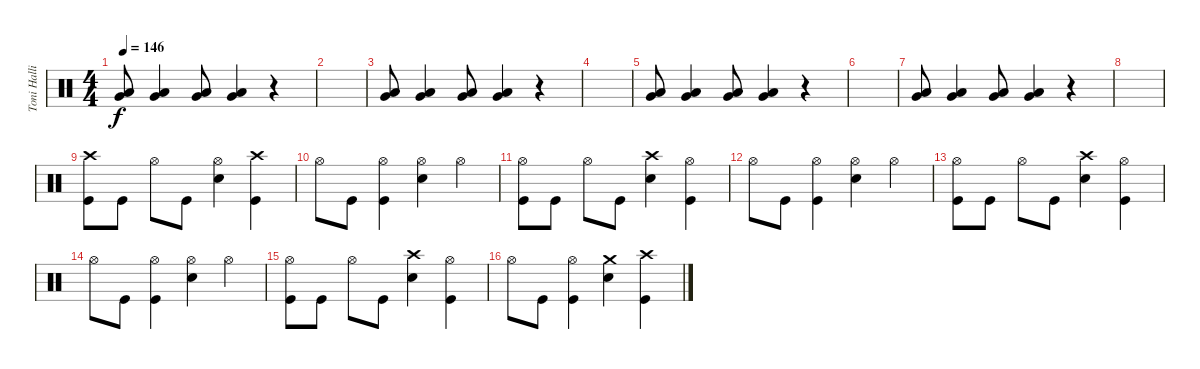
\track ("Toni Hallio" "Toni Halli") {instrument percussion}
\staff {score}
\articulation defaults
\ts (4 4)
\tempo 146
\clef neutral
\ks c
("Low Tom (hit)" "Very Low Tom (hit)").8{dy f} ("Low Tom (hit)" "Very Low Tom (hit)").4 ("Low Tom (hit)" "Very Low Tom (hit)").8 ("Low Tom (hit)" "Very Low Tom (hit)").4 r.4 |
|
("Low Tom (hit)" "Very Low Tom (hit)").8 ("Low Tom (hit)" "Very Low Tom (hit)").4 ("Low Tom (hit)" "Very Low Tom (hit)").8 ("Low Tom (hit)" "Very Low Tom (hit)").4 r.4 |
|
("Low Tom (hit)" "Very Low Tom (hit)").8 ("Low Tom (hit)" "Very Low Tom (hit)").4 ("Low Tom (hit)" "Very Low Tom (hit)").8 ("Low Tom (hit)" "Very Low Tom (hit)").4 r.4 |
|
("Low Tom (hit)" "Very Low Tom (hit)").8 ("Low Tom (hit)" "Very Low Tom (hit)").4 ("Low Tom (hit)" "Very Low Tom (hit)").8 ("Low Tom (hit)" "Very Low Tom (hit)").4 r.4 |
|
("Crash high (hit)" "Kick (hit)").8 "Kick (hit)".8 "Hi-Hat (open)".8 "Kick (hit)".8 ("Hi-Hat (open)" "Snare (hit) 2").4 ("Crash high (hit)" "Kick (hit)").4 |
"Hi-Hat (open)".8 "Kick (hit)".8 ("Hi-Hat (open)" "Kick (hit)").4 ("Hi-Hat (open)" "Snare (hit) 2").4 "Hi-Hat (open)".4 |
("Hi-Hat (open)" "Kick (hit)").8 "Kick (hit)".8 "Hi-Hat (open)".8 "Kick (hit)".8 ("Crash high (hit)" "Snare (hit) 2").4 ("Hi-Hat (open)" "Kick (hit)").4 |
"Hi-Hat (open)".8 "Kick (hit)".8 ("Hi-Hat (open)" "Kick (hit)").4 ("Hi-Hat (open)" "Snare (hit) 2").4 "Hi-Hat (open)".4 |
("Hi-Hat (open)" "Kick (hit)").8 "Kick (hit)".8 "Hi-Hat (open)".8 "Kick (hit)".8 ("Crash high (hit)" "Snare (hit) 2").4 ("Hi-Hat (open)" "Kick (hit)").4 |
"Hi-Hat (open)".8 "Kick (hit)".8 ("Hi-Hat (open)" "Kick (hit)").4 ("Hi-Hat (open)" "Snare (hit) 2").4 "Hi-Hat (open)".4 |
("Hi-Hat (open)" "Kick (hit)").8 "Kick (hit)".8 "Hi-Hat (open)".8 "Kick (hit)".8 ("Crash high (hit)" "Snare (hit) 2").4 ("Hi-Hat (open)" "Kick (hit)").4 |
"Hi-Hat (open)".8 "Kick (hit)".8 ("Hi-Hat (open)" "Kick (hit)").4 ("Crash medium (hit)" "Snare (hit) 2").4 ("Crash high (hit)" "Kick (hit)").4
